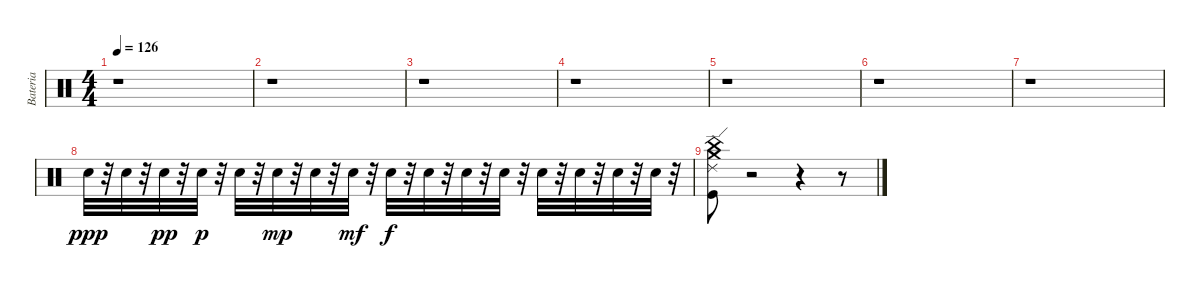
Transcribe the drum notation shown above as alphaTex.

\track ("Bateria" "Bateria") {instrument percussion}
\staff {score}
\articulation defaults
\ts (4 4)
\tempo 126
\clef neutral
\ks c
r.1{dy f} |
r.1 |
r.1 |
r.1 |
r.1 |
r.1 |
r.1 |
"Snare (hit) 2".32{dy ppp} r.32 "Snare (hit) 2".32 r.32 "Snare (hit) 2".32{dy pp} r.32 "Snare (hit) 2".32{dy p} r.32 "Snare (hit) 2".32 r.32 "Snare (hit) 2".32{dy mp} r.32 "Snare (hit) 2".32 r.32 "Snare (hit) 2".32{dy mf} r.32 "Snare (hit) 2".32{dy f} r.32 "Snare (hit) 2".32 r.32 "Snare (hit) 2".32 r.32 "Snare (hit) 2".32 r.32 "Snare (hit) 2".32 r.32 "Snare (hit) 2".32 r.32 "Snare (hit) 2".32 r.32 "Snare (hit) 2".32 r.32 |
("Ride (edge) 2" "Kick (hit)" "Crash medium (hit)" "China (hit)").8 r.2 r.4 r.8
